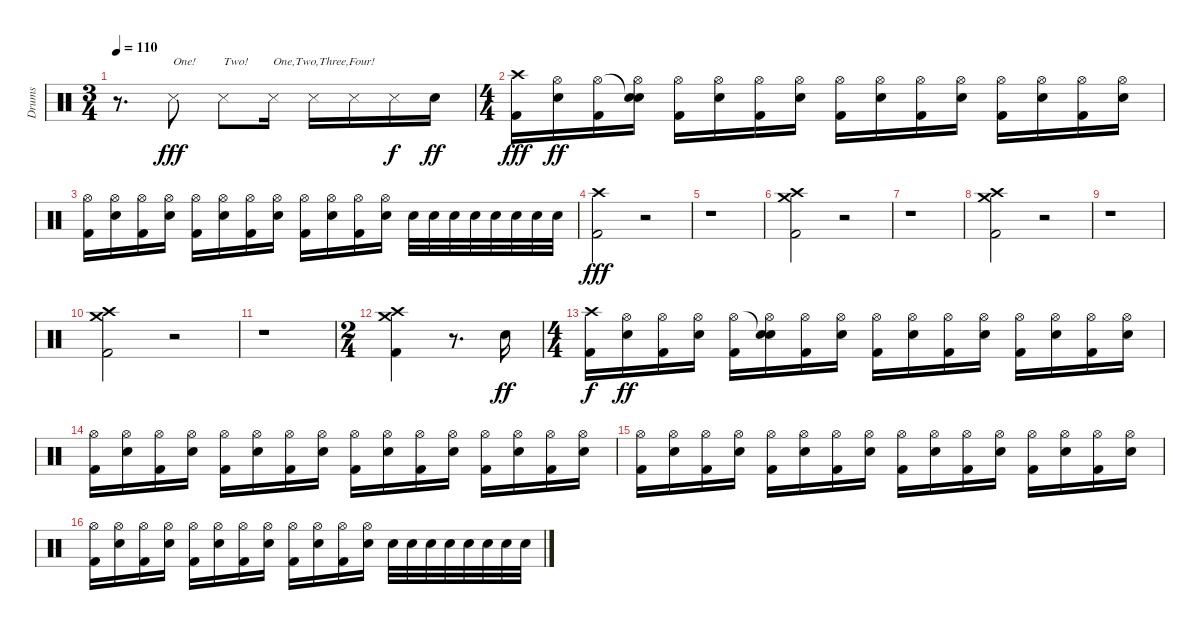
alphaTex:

\track ("Drums" "Drums") {instrument percussion}
\staff {score}
\articulation defaults
\ts (3 4)
\tempo 110
\clef neutral
\ks c
r.8{d dy fff} "Snare (side stick) 3".8{txt "One!"} "Snare (side stick) 3".8{txt "Two!"} "Snare (side stick) 3".16{txt "One,Two,Three,Four!"} "Snare (side stick) 3".16 "Snare (side stick) 3".16 "Snare (side stick) 3".16{dy f} "Snare (hit) 2".16{dy ff} |
\ts (4 4)
("Crash high (hit)" "Kick (hit) 2").16{dy fff} ("Hi-Hat (open)" "Snare (hit) 2").16{dy ff} ("Hi-Hat (open)" "Kick (hit) 2").16 ("Snare (hit)"{t} "Hi-Hat (open)" "Snare (hit) 2").16 ("Hi-Hat (open)" "Kick (hit) 2").16 ("Hi-Hat (open)" "Snare (hit) 2").16 ("Hi-Hat (open)" "Kick (hit) 2").16 ("Hi-Hat (open)" "Snare (hit) 2").16 ("Hi-Hat (open)" "Kick (hit) 2").16 ("Hi-Hat (open)" "Snare (hit) 2").16 ("Hi-Hat (open)" "Kick (hit) 2").16 ("Hi-Hat (open)" "Snare (hit) 2").16 ("Hi-Hat (open)" "Kick (hit) 2").16 ("Hi-Hat (open)" "Snare (hit) 2").16 ("Hi-Hat (open)" "Kick (hit) 2").16 ("Hi-Hat (open)" "Snare (hit) 2").16 |
("Hi-Hat (open)" "Kick (hit) 2").16 ("Hi-Hat (open)" "Snare (hit) 2").16 ("Hi-Hat (open)" "Kick (hit) 2").16 ("Hi-Hat (open)" "Snare (hit) 2").16 ("Hi-Hat (open)" "Kick (hit) 2").16 ("Hi-Hat (open)" "Snare (hit) 2").16 ("Hi-Hat (open)" "Kick (hit) 2").16 ("Hi-Hat (open)" "Snare (hit) 2").16 ("Hi-Hat (open)" "Kick (hit) 2").16 ("Hi-Hat (open)" "Snare (hit) 2").16 ("Hi-Hat (open)" "Kick (hit) 2").16 ("Hi-Hat (open)" "Snare (hit) 2").16 "Snare (hit) 2".32 "Snare (hit) 2".32 "Snare (hit) 2".32 "Snare (hit) 2".32 "Snare (hit) 2".32 "Snare (hit) 2".32 "Snare (hit) 2".32 "Snare (hit) 2".32 |
("Crash high (hit)" "Kick (hit) 2").2{dy fff} r.2 |
r.1 |
("Crash high (hit)" "Crash medium (hit)" "Kick (hit) 2").2 r.2 |
r.1 |
("Crash high (hit)" "Crash medium (hit)" "Kick (hit) 2").2 r.2 |
r.1 |
("Crash high (hit)" "Crash medium (hit)" "Kick (hit) 2").2 r.2 |
r.1 |
\ts (2 4)
("Crash high (hit)" "Crash medium (hit)" "Kick (hit) 2").4 r.8{d} "Snare (hit) 2".16{dy ff} |
\ts (4 4)
("Crash high (hit)" "Kick (hit) 2").16{dy f} ("Hi-Hat (open)" "Snare (hit) 2").16{dy ff} ("Hi-Hat (open)" "Kick (hit) 2").16 ("Hi-Hat (open)" "Snare (hit) 2").16 ("Hi-Hat (open)" "Kick (hit) 2").16 ("Snare (hit)"{t} "Hi-Hat (open)" "Snare (hit) 2").16 ("Hi-Hat (open)" "Kick (hit) 2").16 ("Hi-Hat (open)" "Snare (hit) 2").16 ("Hi-Hat (open)" "Kick (hit) 2").16 ("Hi-Hat (open)" "Snare (hit) 2").16 ("Hi-Hat (open)" "Kick (hit) 2").16 ("Hi-Hat (open)" "Snare (hit) 2").16 ("Hi-Hat (open)" "Kick (hit) 2").16 ("Hi-Hat (open)" "Snare (hit) 2").16 ("Hi-Hat (open)" "Kick (hit) 2").16 ("Hi-Hat (open)" "Snare (hit) 2").16 |
("Hi-Hat (open)" "Kick (hit) 2").16 ("Hi-Hat (open)" "Snare (hit) 2").16 ("Hi-Hat (open)" "Kick (hit) 2").16 ("Hi-Hat (open)" "Snare (hit) 2").16 ("Hi-Hat (open)" "Kick (hit) 2").16 ("Hi-Hat (open)" "Snare (hit) 2").16 ("Hi-Hat (open)" "Kick (hit) 2").16 ("Hi-Hat (open)" "Snare (hit) 2").16 ("Hi-Hat (open)" "Kick (hit) 2").16 ("Hi-Hat (open)" "Snare (hit) 2").16 ("Hi-Hat (open)" "Kick (hit) 2").16 ("Hi-Hat (open)" "Snare (hit) 2").16 ("Hi-Hat (open)" "Kick (hit) 2").16 ("Hi-Hat (open)" "Snare (hit) 2").16 ("Hi-Hat (open)" "Kick (hit) 2").16 ("Hi-Hat (open)" "Snare (hit) 2").16 |
("Hi-Hat (open)" "Kick (hit) 2").16 ("Hi-Hat (open)" "Snare (hit) 2").16 ("Hi-Hat (open)" "Kick (hit) 2").16 ("Hi-Hat (open)" "Snare (hit) 2").16 ("Hi-Hat (open)" "Kick (hit) 2").16 ("Hi-Hat (open)" "Snare (hit) 2").16 ("Hi-Hat (open)" "Kick (hit) 2").16 ("Hi-Hat (open)" "Snare (hit) 2").16 ("Hi-Hat (open)" "Kick (hit) 2").16 ("Hi-Hat (open)" "Snare (hit) 2").16 ("Hi-Hat (open)" "Kick (hit) 2").16 ("Hi-Hat (open)" "Snare (hit) 2").16 ("Hi-Hat (open)" "Kick (hit) 2").16 ("Hi-Hat (open)" "Snare (hit) 2").16 ("Hi-Hat (open)" "Kick (hit) 2").16 ("Hi-Hat (open)" "Snare (hit) 2").16 |
("Hi-Hat (open)" "Kick (hit) 2").16 ("Hi-Hat (open)" "Snare (hit) 2").16 ("Hi-Hat (open)" "Kick (hit) 2").16 ("Hi-Hat (open)" "Snare (hit) 2").16 ("Hi-Hat (open)" "Kick (hit) 2").16 ("Hi-Hat (open)" "Snare (hit) 2").16 ("Hi-Hat (open)" "Kick (hit) 2").16 ("Hi-Hat (open)" "Snare (hit) 2").16 ("Hi-Hat (open)" "Kick (hit) 2").16 ("Hi-Hat (open)" "Snare (hit) 2").16 ("Hi-Hat (open)" "Kick (hit) 2").16 ("Hi-Hat (open)" "Snare (hit) 2").16 "Snare (hit) 2".32 "Snare (hit) 2".32 "Snare (hit) 2".32 "Snare (hit) 2".32 "Snare (hit) 2".32 "Snare (hit) 2".32 "Snare (hit) 2".32 "Snare (hit) 2".32
